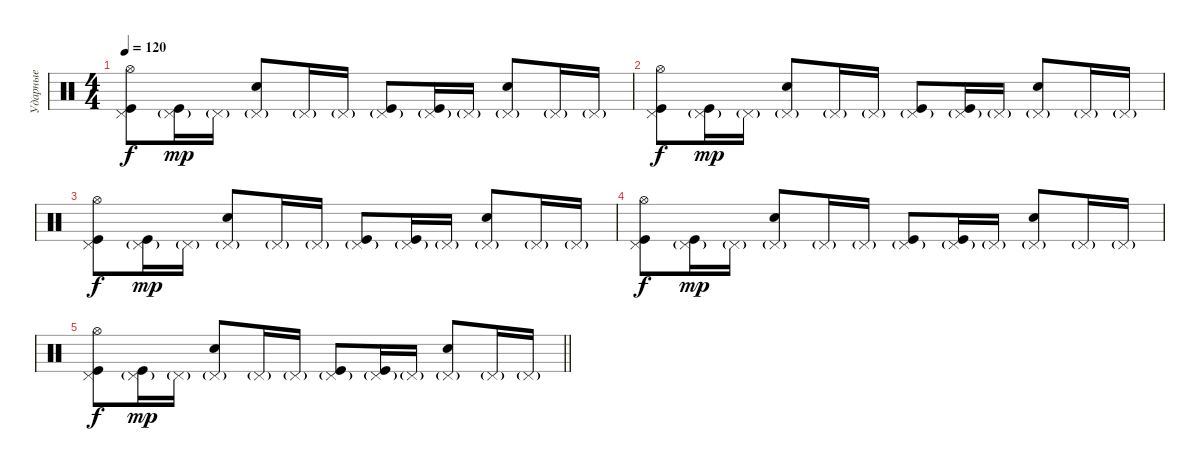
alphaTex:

\track ("Ударные" "Ударные") {instrument percussion}
\staff {score}
\articulation defaults
\ts (4 4)
\tempo 120
\clef neutral
\ks c
("Hi-Hat (open)" "Kick (hit)" "Pedal Hi-Hat (hit)").8{dy f} ("Kick (hit)" "Pedal Hi-Hat (hit)"{g}).16{dy mp} "Pedal Hi-Hat (hit)"{g}.16 ("Electric Snare (hit)" "Pedal Hi-Hat (hit)"{g}).8 "Pedal Hi-Hat (hit)"{g}.16 "Pedal Hi-Hat (hit)"{g}.16 ("Kick (hit)" "Pedal Hi-Hat (hit)"{g}).8 ("Kick (hit)" "Pedal Hi-Hat (hit)"{g}).16 "Pedal Hi-Hat (hit)"{g}.16 ("Electric Snare (hit)" "Pedal Hi-Hat (hit)"{g}).8 "Pedal Hi-Hat (hit)"{g}.16 "Pedal Hi-Hat (hit)"{g}.16 |
("Hi-Hat (open)" "Kick (hit)" "Pedal Hi-Hat (hit)").8{dy f} ("Kick (hit)" "Pedal Hi-Hat (hit)"{g}).16{dy mp} "Pedal Hi-Hat (hit)"{g}.16 ("Electric Snare (hit)" "Pedal Hi-Hat (hit)"{g}).8 "Pedal Hi-Hat (hit)"{g}.16 "Pedal Hi-Hat (hit)"{g}.16 ("Kick (hit)" "Pedal Hi-Hat (hit)"{g}).8 ("Kick (hit)" "Pedal Hi-Hat (hit)"{g}).16 "Pedal Hi-Hat (hit)"{g}.16 ("Electric Snare (hit)" "Pedal Hi-Hat (hit)"{g}).8 "Pedal Hi-Hat (hit)"{g}.16 "Pedal Hi-Hat (hit)"{g}.16 |
("Hi-Hat (open)" "Kick (hit)" "Pedal Hi-Hat (hit)").8{dy f} ("Kick (hit)" "Pedal Hi-Hat (hit)"{g}).16{dy mp} "Pedal Hi-Hat (hit)"{g}.16 ("Electric Snare (hit)" "Pedal Hi-Hat (hit)"{g}).8 "Pedal Hi-Hat (hit)"{g}.16 "Pedal Hi-Hat (hit)"{g}.16 ("Kick (hit)" "Pedal Hi-Hat (hit)"{g}).8 ("Kick (hit)" "Pedal Hi-Hat (hit)"{g}).16 "Pedal Hi-Hat (hit)"{g}.16 ("Electric Snare (hit)" "Pedal Hi-Hat (hit)"{g}).8 "Pedal Hi-Hat (hit)"{g}.16 "Pedal Hi-Hat (hit)"{g}.16 |
("Hi-Hat (open)" "Kick (hit)" "Pedal Hi-Hat (hit)").8{dy f} ("Kick (hit)" "Pedal Hi-Hat (hit)"{g}).16{dy mp} "Pedal Hi-Hat (hit)"{g}.16 ("Electric Snare (hit)" "Pedal Hi-Hat (hit)"{g}).8 "Pedal Hi-Hat (hit)"{g}.16 "Pedal Hi-Hat (hit)"{g}.16 ("Kick (hit)" "Pedal Hi-Hat (hit)"{g}).8 ("Kick (hit)" "Pedal Hi-Hat (hit)"{g}).16 "Pedal Hi-Hat (hit)"{g}.16 ("Electric Snare (hit)" "Pedal Hi-Hat (hit)"{g}).8 "Pedal Hi-Hat (hit)"{g}.16 "Pedal Hi-Hat (hit)"{g}.16 |
\barLineRight lightlight
("Hi-Hat (open)" "Kick (hit)" "Pedal Hi-Hat (hit)").8{dy f} ("Kick (hit)" "Pedal Hi-Hat (hit)"{g}).16{dy mp} "Pedal Hi-Hat (hit)"{g}.16 ("Electric Snare (hit)" "Pedal Hi-Hat (hit)"{g}).8 "Pedal Hi-Hat (hit)"{g}.16 "Pedal Hi-Hat (hit)"{g}.16 ("Kick (hit)" "Pedal Hi-Hat (hit)"{g}).8 ("Kick (hit)" "Pedal Hi-Hat (hit)"{g}).16 "Pedal Hi-Hat (hit)"{g}.16 ("Electric Snare (hit)" "Pedal Hi-Hat (hit)"{g}).8 "Pedal Hi-Hat (hit)"{g}.16 "Pedal Hi-Hat (hit)"{g}.16
